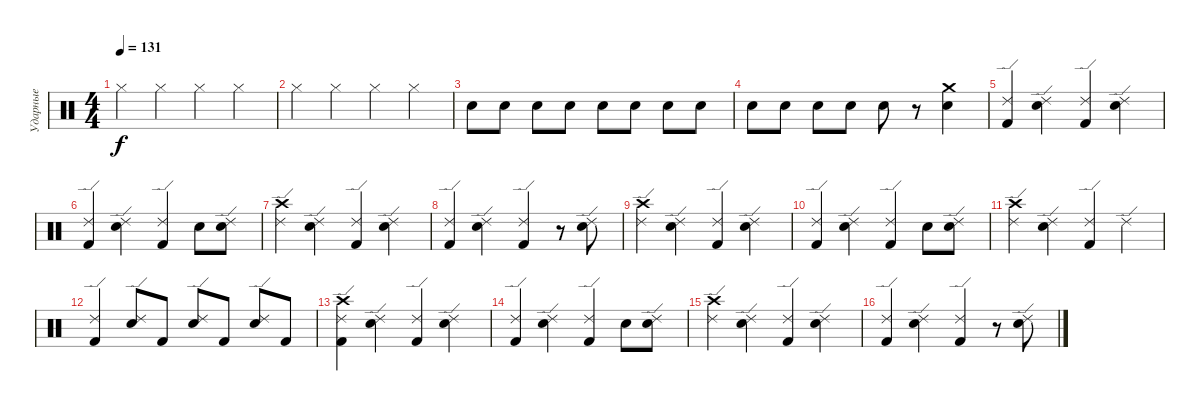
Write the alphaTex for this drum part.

\track ("Ударные" "Ударные") {instrument percussion}
\staff {score}
\articulation defaults
\ts (4 4)
\tempo 131
\clef neutral
\ks c "Hi-Hat (closed)".4{dy f} "Hi-Hat (closed)".4 "Hi-Hat (closed)".4 "Hi-Hat (closed)".4
|
"Hi-Hat (closed)".4 "Hi-Hat (closed)".4 "Hi-Hat (closed)".4 "Hi-Hat (closed)".4 |
"Electric Snare (hit)".8 "Electric Snare (hit)".8 "Electric Snare (hit)".8 "Electric Snare (hit)".8 "Electric Snare (hit)".8 "Electric Snare (hit)".8 "Electric Snare (hit)".8 "Electric Snare (hit)".8 |
"Electric Snare (hit)".8 "Electric Snare (hit)".8 "Electric Snare (hit)".8 "Electric Snare (hit)".8 "Electric Snare (hit)".8 r.8 ("Crash medium (hit)" "Electric Snare (hit)").4 |
("Kick (hit) 2" "Ride (edge) 2").4 ("Electric Snare (hit)" "Ride (edge) 2").4 ("Kick (hit) 2" "Ride (edge) 2").4 ("Electric Snare (hit)" "Ride (edge) 2").4 |
("Kick (hit) 2" "Ride (edge) 2").4 ("Electric Snare (hit)" "Ride (edge) 2").4 ("Kick (hit) 2" "Ride (edge) 2").4 "Electric Snare (hit)".8 ("Electric Snare (hit)" "Ride (edge) 2").8 |
("Crash high (hit)" "Ride (edge) 2").4 ("Electric Snare (hit)" "Ride (edge) 2").4 ("Kick (hit) 2" "Ride (edge) 2").4 ("Electric Snare (hit)" "Ride (edge) 2").4 |
("Kick (hit) 2" "Ride (edge) 2").4 ("Electric Snare (hit)" "Ride (edge) 2").4 ("Kick (hit) 2" "Ride (edge) 2").4 r.8 ("Electric Snare (hit)" "Ride (edge) 2").8 |
("Crash high (hit)" "Ride (edge) 2").4 ("Electric Snare (hit)" "Ride (edge) 2").4 ("Kick (hit) 2" "Ride (edge) 2").4 ("Electric Snare (hit)" "Ride (edge) 2").4 |
("Kick (hit) 2" "Ride (edge) 2").4 ("Electric Snare (hit)" "Ride (edge) 2").4 ("Kick (hit) 2" "Ride (edge) 2").4 "Electric Snare (hit)".8 ("Electric Snare (hit)" "Ride (edge) 2").8 |
("Crash high (hit)" "Ride (edge) 2").4 ("Electric Snare (hit)" "Ride (edge) 2").4 ("Kick (hit) 2" "Ride (edge) 2").4 "Ride (edge) 2".4 |
("Kick (hit) 2" "Ride (edge) 2").4 ("Electric Snare (hit)" "Ride (edge) 2").8 "Kick (hit) 2".8 ("Electric Snare (hit)" "Ride (edge) 2").8 "Kick (hit) 2".8 ("Electric Snare (hit)" "Ride (edge) 2").8 "Kick (hit) 2".8 |
("Crash high (hit)" "Kick (hit) 2" "Ride (edge) 2").4 ("Electric Snare (hit)" "Ride (edge) 2").4 ("Kick (hit) 2" "Ride (edge) 2").4 ("Electric Snare (hit)" "Ride (edge) 2").4 |
("Kick (hit) 2" "Ride (edge) 2").4 ("Electric Snare (hit)" "Ride (edge) 2").4 ("Kick (hit) 2" "Ride (edge) 2").4 "Electric Snare (hit)".8 ("Electric Snare (hit)" "Ride (edge) 2").8 |
("Crash high (hit)" "Ride (edge) 2").4 ("Electric Snare (hit)" "Ride (edge) 2").4 ("Kick (hit) 2" "Ride (edge) 2").4 ("Electric Snare (hit)" "Ride (edge) 2").4 |
("Kick (hit) 2" "Ride (edge) 2").4 ("Electric Snare (hit)" "Ride (edge) 2").4 ("Kick (hit) 2" "Ride (edge) 2").4 r.8 ("Electric Snare (hit)" "Ride (edge) 2").8
